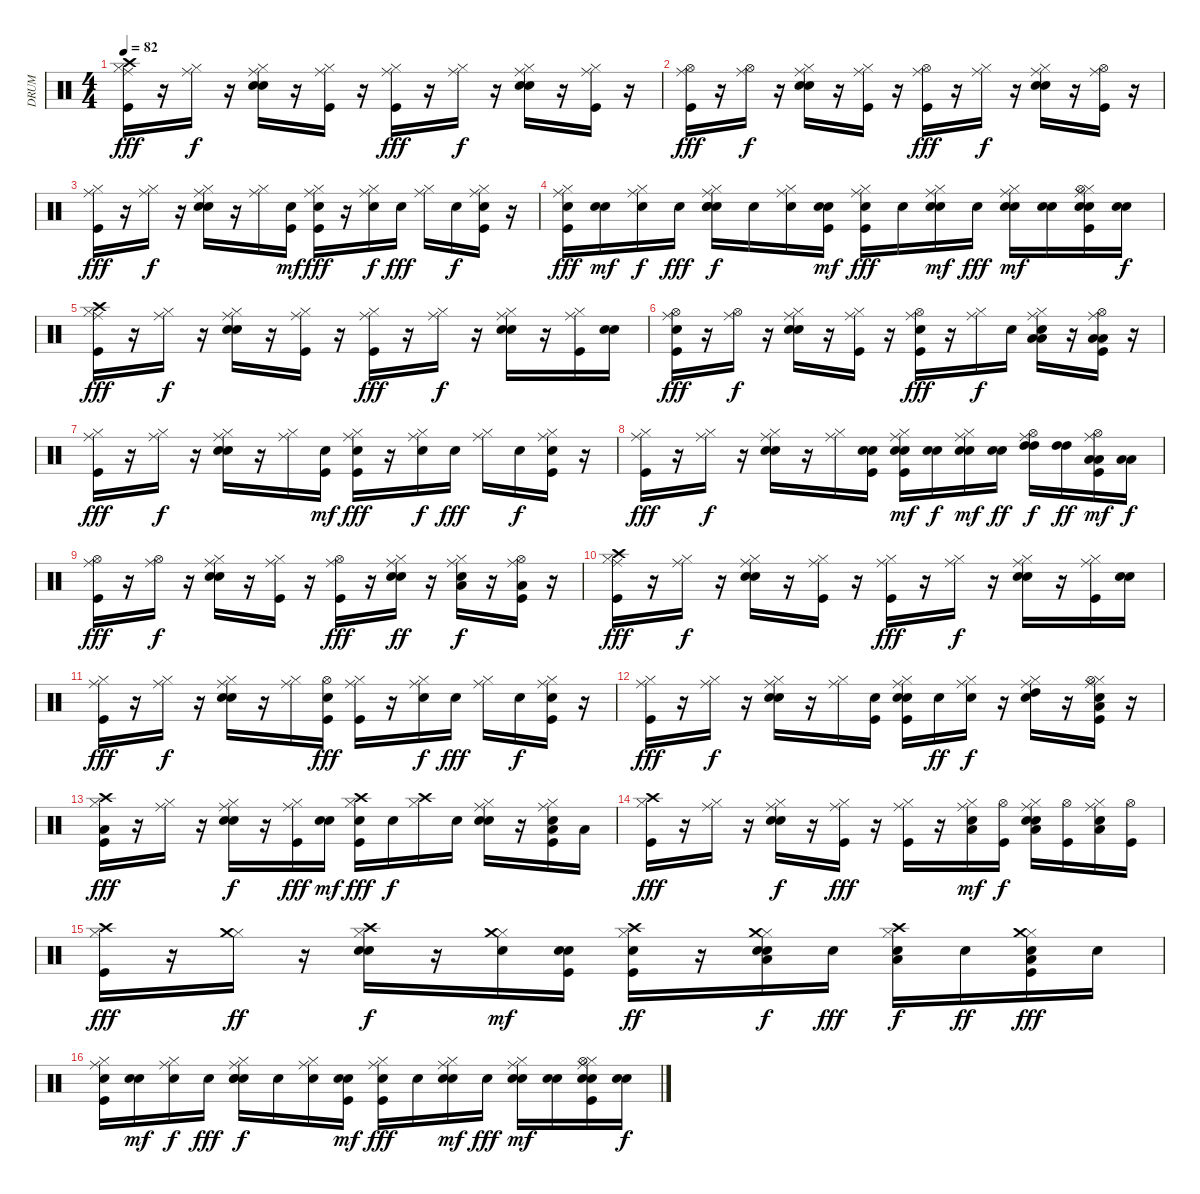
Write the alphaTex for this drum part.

\track ("DRUM" "DRUM") {instrument percussion}
\staff {score}
\articulation defaults
\ts (4 4)
\tempo 82
\clef neutral
\ks c
("Kick (hit)" "Hi-Hat (closed)" "Ride (middle)" "Crash high (hit)").16{dy fff} r.16 ("Hi-Hat (closed)" "Ride (middle)").16{dy f} r.16 ("Snare (hit) 2" "Hi-Hat (closed)" "Ride (middle)" "Hand Clap (hit)").16 r.16 ("Kick (hit)" "Hi-Hat (closed)" "Ride (middle)").16 r.16 ("Kick (hit)" "Hi-Hat (closed)" "Ride (middle)").16{dy fff} r.16 ("Hi-Hat (closed)" "Ride (middle)").16{dy f} r.16 ("Snare (hit) 2" "Hi-Hat (closed)" "Ride (middle)" "Hand Clap (hit)").16 r.16 ("Kick (hit)" "Hi-Hat (closed)" "Ride (middle)").16 r.16 |
("Kick (hit)" "Hi-Hat (open)" "Ride (middle)").16{dy fff} r.16 ("Hi-Hat (open)" "Ride (middle)").16{dy f} r.16 ("Snare (hit) 2" "Hi-Hat (closed)" "Ride (middle)" "Hand Clap (hit)").16 r.16 ("Kick (hit)" "Hi-Hat (closed)" "Ride (middle)").16 r.16 ("Kick (hit)" "Hi-Hat (open)" "Ride (middle)").16{dy fff} r.16 ("Hi-Hat (closed)" "Ride (middle)").16{dy f} r.16 ("Snare (hit) 2" "Hi-Hat (closed)" "Ride (middle)" "Hand Clap (hit)").16 r.16 ("Kick (hit)" "Hi-Hat (open)" "Ride (middle)").16 r.16 |
("Kick (hit)" "Hi-Hat (closed)" "Ride (middle)").16{dy fff} r.16 ("Hi-Hat (closed)" "Ride (middle)").16{dy f} r.16 ("Snare (hit) 2" "Hi-Hat (closed)" "Ride (middle)" "Hand Clap (hit)").16 r.16 ("Hi-Hat (closed)" "Ride (middle)").16 ("Kick (hit)" "Snare (hit) 2").16{dy mf} ("Kick (hit)" "Snare (hit) 2" "Hi-Hat (closed)" "Ride (middle)").16{dy fff} r.16 ("Snare (hit) 2" "Hi-Hat (closed)" "Ride (middle)").16{dy f} "Snare (hit) 2".16{dy fff} ("Hi-Hat (closed)" "Ride (middle)").16 "Snare (hit) 2".16{dy f} ("Kick (hit)" "Snare (hit) 2" "Hi-Hat (closed)" "Ride (middle)").16 r.16 |
("Kick (hit)" "Snare (hit) 2" "Hi-Hat (closed)" "Ride (middle)").16{dy fff} ("Snare (hit) 2" "Snare (hit) 2").16{dy mf} ("Snare (hit) 2" "Hi-Hat (closed)" "Ride (middle)").16{dy f} "Snare (hit) 2".16{dy fff} ("Snare (hit) 2" "Hi-Hat (closed)" "Ride (middle)" "Hand Clap (hit)" "Snare (hit) 2").16{dy f} "Snare (hit) 2".16 ("Snare (hit) 2" "Hi-Hat (closed)" "Ride (middle)").16 ("Kick (hit)" "Snare (hit) 2" "Snare (hit) 2").16{dy mf} ("Kick (hit)" "Snare (hit) 2" "Hi-Hat (closed)" "Ride (middle)").16{dy fff} "Snare (hit) 2".16 ("Snare (hit) 2" "Hi-Hat (closed)" "Ride (middle)" "Snare (hit) 2").16{dy mf} "Snare (hit) 2".16{dy fff} ("Snare (hit) 2" "Hi-Hat (closed)" "Ride (middle)" "Snare (hit) 2").16{dy mf} ("Snare (hit) 2" "Snare (hit) 2").16 ("Kick (hit)" "Snare (hit) 2" "Hi-Hat (closed)" "Hi-Hat (open)" "Ride (middle)" "Snare (hit) 2").16 ("Snare (hit) 2" "Snare (hit) 2").16{dy f} |
("Kick (hit)" "Hi-Hat (closed)" "Ride (middle)" "Crash high (hit)").16{dy fff} r.16 ("Hi-Hat (closed)" "Ride (middle)").16{dy f} r.16 ("Snare (hit) 2" "Hi-Hat (closed)" "Ride (middle)" "Hand Clap (hit)").16 r.16 ("Kick (hit)" "Hi-Hat (closed)" "Ride (middle)").16 r.16 ("Kick (hit)" "Hi-Hat (closed)" "Ride (middle)").16{dy fff} r.16 ("Hi-Hat (closed)" "Ride (middle)").16{dy f} r.16 ("Snare (hit) 2" "Hi-Hat (closed)" "Ride (middle)" "Hand Clap (hit)").16 r.16 ("Kick (hit)" "Hi-Hat (closed)" "Ride (middle)").16 ("Snare (hit) 2" "Snare (hit) 2").16 |
("Kick (hit)" "Snare (hit) 2" "Hi-Hat (open)" "Ride (middle)").16{dy fff} r.16 ("Hi-Hat (open)" "Ride (middle)").16{dy f} r.16 ("Snare (hit) 2" "Hi-Hat (closed)" "Ride (middle)" "Hand Clap (hit)").16 r.16 ("Kick (hit)" "Hi-Hat (closed)" "Ride (middle)").16 r.16 ("Kick (hit)" "Snare (hit) 2" "Hi-Hat (open)" "Ride (middle)").16{dy fff} r.16 ("Hi-Hat (closed)" "Ride (middle)").16{dy f} "Snare (hit) 2".16 ("Hi-Hat (closed)" "Ride (middle)" "Low Tom (hit)" "Hand Clap (hit)" "Low Tom (hit)").16 r.16 ("Kick (hit)" "Hi-Hat (open)" "Ride (middle)" "Low Floor Tom (hit)" "Low Floor Tom (hit)").16 r.16 |
("Kick (hit)" "Hi-Hat (closed)" "Ride (middle)").16{dy fff} r.16 ("Hi-Hat (closed)" "Ride (middle)").16{dy f} r.16 ("Snare (hit) 2" "Hi-Hat (closed)" "Ride (middle)" "Hand Clap (hit)").16 r.16 ("Hi-Hat (closed)" "Ride (middle)").16 ("Kick (hit)" "Snare (hit) 2").16{dy mf} ("Kick (hit)" "Snare (hit) 2" "Hi-Hat (closed)" "Ride (middle)").16{dy fff} r.16 ("Snare (hit) 2" "Hi-Hat (closed)" "Ride (middle)").16{dy f} "Snare (hit) 2".16{dy fff} ("Hi-Hat (closed)" "Ride (middle)").16 "Snare (hit) 2".16{dy f} ("Kick (hit)" "Snare (hit) 2" "Hi-Hat (closed)" "Ride (middle)").16 r.16 |
("Kick (hit)" "Hi-Hat (closed)" "Ride (middle)").16{dy fff} r.16 ("Hi-Hat (closed)" "Ride (middle)").16{dy f} r.16 ("Snare (hit) 2" "Hi-Hat (closed)" "Ride (middle)" "Hand Clap (hit)").16 r.16 ("Hi-Hat (closed)" "Ride (middle)").16 ("Kick (hit)" "Snare (hit) 2" "Snare (hit) 2").16 ("Kick (hit)" "Snare (hit) 2" "Hi-Hat (closed)" "Ride (middle)" "Snare (hit) 2").16{dy mf} ("Snare (hit) 2" "Snare (hit) 2").16{dy f} ("Snare (hit) 2" "Hi-Hat (closed)" "Ride (middle)" "Snare (hit) 2").16{dy mf} ("Snare (hit) 2" "Snare (hit) 2").16{dy ff} ("Hi-Hat (open)" "Ride (middle)" "High Tom (hit)" "High Tom (hit)").16{dy f} ("High Tom (hit)" "High Tom (hit)").16{dy ff} ("Kick (hit)" "Hi-Hat (open)" "Ride (middle)" "Low Tom (hit)" "Low Tom (hit)").16{dy mf} ("Low Tom (hit)" "Low Floor Tom (hit)").16{dy f} |
("Kick (hit)" "Hi-Hat (open)" "Ride (middle)").16{dy fff} r.16 ("Hi-Hat (open)" "Ride (middle)").16{dy f} r.16 ("Snare (hit) 2" "Hi-Hat (closed)" "Ride (middle)" "Hand Clap (hit)").16 r.16 ("Kick (hit)" "Hi-Hat (closed)" "Ride (middle)").16 r.16 ("Kick (hit)" "Hi-Hat (open)" "Ride (middle)").16{dy fff} r.16 ("Snare (hit) 2" "Hi-Hat (closed)" "Ride (middle)" "Snare (hit) 2").16{dy ff} r.16 ("Hi-Hat (closed)" "Ride (middle)" "Low Tom (hit)" "Hand Clap (hit)").16{dy f} r.16 ("Kick (hit)" "Hi-Hat (open)" "Ride (middle)" "Low Floor Tom (hit)").16 r.16 |
("Kick (hit)" "Hi-Hat (closed)" "Ride (middle)" "Crash high (hit)").16{dy fff} r.16 ("Hi-Hat (closed)" "Ride (middle)").16{dy f} r.16 ("Snare (hit) 2" "Hi-Hat (closed)" "Ride (middle)" "Hand Clap (hit)").16 r.16 ("Kick (hit)" "Hi-Hat (closed)" "Ride (middle)").16 r.16 ("Kick (hit)" "Hi-Hat (closed)" "Ride (middle)").16{dy fff} r.16 ("Hi-Hat (closed)" "Ride (middle)").16{dy f} r.16 ("Snare (hit) 2" "Hi-Hat (closed)" "Ride (middle)" "Hand Clap (hit)").16 r.16 ("Kick (hit)" "Hi-Hat (closed)" "Ride (middle)").16 ("Snare (hit) 2" "Snare (hit) 2").16 |
("Kick (hit)" "Hi-Hat (closed)" "Ride (middle)").16{dy fff} r.16 ("Hi-Hat (closed)" "Ride (middle)").16{dy f} r.16 ("Snare (hit) 2" "Hi-Hat (closed)" "Ride (middle)" "Hand Clap (hit)").16 r.16 ("Hi-Hat (closed)" "Ride (middle)").16 ("Kick (hit)" "Snare (hit) 2" "Hi-Hat (open)").16{dy fff} ("Kick (hit)" "Hi-Hat (closed)" "Ride (middle)").16 r.16 ("Snare (hit) 2" "Hi-Hat (closed)" "Ride (middle)").16{dy f} "Snare (hit) 2".16{dy fff} ("Hi-Hat (closed)" "Ride (middle)").16 "Snare (hit) 2".16{dy f} ("Kick (hit)" "Snare (hit) 2" "Hi-Hat (closed)" "Ride (middle)").16 r.16 |
("Kick (hit)" "Hi-Hat (closed)" "Ride (middle)").16{dy fff} r.16 ("Hi-Hat (closed)" "Ride (middle)").16{dy f} r.16 ("Snare (hit) 2" "Hi-Hat (closed)" "Ride (middle)" "Hand Clap (hit)").16 r.16 ("Hi-Hat (closed)" "Ride (middle)").16 ("Kick (hit)" "Snare (hit) 2").16 ("Kick (hit)" "Snare (hit) 2" "Hi-Hat (closed)" "Ride (middle)" "Snare (hit) 2").16 "Snare (hit) 2".16{dy ff} ("Snare (hit) 2" "Hi-Hat (closed)" "Ride (middle)").16{dy f} r.16 ("Snare (hit) 2" "Hi-Hat (closed)" "Ride (middle)" "High Tom (hit)").16 r.16 ("Snare (hit) 2" "Kick (hit)" "Hi-Hat (closed)" "Hi-Hat (open)" "Ride (middle)" "Low Tom (hit)").16 r.16 |
("Low Floor Tom (hit)" "Kick (hit)" "Hi-Hat (closed)" "Crash high (hit)").16{dy fff} r.16 ("Hi-Hat (closed)" "Ride (middle)").16 r.16 ("Snare (hit) 2" "Hi-Hat (closed)" "Ride (middle)" "Hand Clap (hit)").16{dy f} r.16 ("Kick (hit)" "Hi-Hat (closed)" "Ride (middle)").16{dy fff} ("Snare (hit) 2" "Snare (hit) 2").16{dy mf} ("Kick (hit)" "Snare (hit) 2" "Hi-Hat (closed)" "Crash high (hit)").16{dy fff} "Snare (hit) 2".16{dy f} ("Hi-Hat (closed)" "Crash high (hit)").16 "Snare (hit) 2".16 ("Snare (hit) 2" "Hi-Hat (closed)" "Ride (middle)" "Hand Clap (hit)").16 r.16 ("Snare (hit) 2" "Kick (hit)" "Hi-Hat (closed)" "Ride (middle)" "Low Tom (hit)").16 "Low Floor Tom (hit)".16 |
("Kick (hit)" "Hi-Hat (closed)" "Crash high (hit)").16{dy fff} r.16 ("Hi-Hat (closed)" "Ride (middle)").16 r.16 ("Snare (hit) 2" "Hi-Hat (closed)" "Ride (middle)" "Hand Clap (hit)").16{dy f} r.16 ("Kick (hit)" "Hi-Hat (closed)" "Ride (middle)").16{dy fff} r.16 ("Kick (hit)" "Hi-Hat (closed)" "Ride (middle)").16 r.16 ("Snare (hit) 2" "Hi-Hat (closed)" "Ride (middle)" "Low Floor Tom (hit)").16{dy mf} ("Kick (hit)" "Hi-Hat (open)").16{dy f} ("Snare (hit) 2" "Hi-Hat (closed)" "Ride (middle)" "Low Floor Tom (hit)" "Hand Clap (hit)").16 ("Kick (hit)" "Hi-Hat (open)").16 ("Snare (hit) 2" "Hi-Hat (closed)" "Ride (middle)" "Low Floor Tom (hit)").16 ("Kick (hit)" "Hi-Hat (open)").16 |
("Kick (hit)" "Hi-Hat (closed)" "Crash high (hit)").16{dy fff} r.16 ("Hi-Hat (closed)" "Crash medium (hit)").16{dy ff} r.16 ("Snare (hit) 2" "Hi-Hat (closed)" "Crash high (hit)" "Hand Clap (hit)").16{dy f} r.16 ("Hi-Hat (closed)" "Crash medium (hit)" "Snare (hit) 2").16{dy mf} ("Kick (hit)" "Snare (hit) 2" "Snare (hit) 2").16 ("Kick (hit)" "Snare (hit) 2" "Hi-Hat (closed)" "Crash high (hit)").16{dy ff} r.16 ("Snare (hit) 2" "Hi-Hat (closed)" "Crash medium (hit)" "Low Floor Tom (hit)" "Snare (hit) 2").16{dy f} "Snare (hit) 2".16{dy fff} ("Snare (hit) 2" "Hi-Hat (closed)" "Crash high (hit)" "Low Floor Tom (hit)").16{dy f} "Snare (hit) 2".16{dy ff} ("Kick (hit)" "Snare (hit) 2" "Hi-Hat (closed)" "Crash medium (hit)" "Low Floor Tom (hit)").16{dy fff} "Snare (hit) 2".16 |
("Kick (hit)" "Snare (hit) 2" "Hi-Hat (closed)" "Ride (middle)").16 ("Snare (hit) 2" "Snare (hit) 2").16{dy mf} ("Snare (hit) 2" "Hi-Hat (closed)" "Ride (middle)").16{dy f} "Snare (hit) 2".16{dy fff} ("Snare (hit) 2" "Hi-Hat (closed)" "Ride (middle)" "Hand Clap (hit)" "Snare (hit) 2").16{dy f} "Snare (hit) 2".16 ("Snare (hit) 2" "Hi-Hat (closed)" "Ride (middle)").16 ("Kick (hit)" "Snare (hit) 2" "Snare (hit) 2").16{dy mf} ("Kick (hit)" "Snare (hit) 2" "Hi-Hat (closed)" "Ride (middle)").16{dy fff} "Snare (hit) 2".16 ("Snare (hit) 2" "Hi-Hat (closed)" "Ride (middle)" "Snare (hit) 2").16{dy mf} "Snare (hit) 2".16{dy fff} ("Snare (hit) 2" "Hi-Hat (closed)" "Ride (middle)" "Snare (hit) 2").16{dy mf} ("Snare (hit) 2" "Snare (hit) 2").16 ("Kick (hit)" "Snare (hit) 2" "Hi-Hat (closed)" "Hi-Hat (open)" "Ride (middle)" "Snare (hit) 2").16 ("Snare (hit) 2" "Snare (hit) 2").16{dy f}
